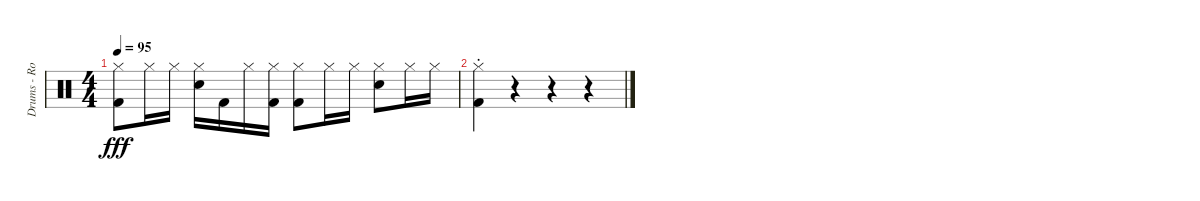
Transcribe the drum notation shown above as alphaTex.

\track ("Drums - Rob Bourdon" "Drums - Ro") {instrument percussion}
\staff {score}
\articulation defaults
\ts (4 4)
\tempo 95
\clef neutral
\ks c
("Hi-Hat (closed)" "Kick (hit) 2").8{dy fff} "Hi-Hat (closed)".16 "Hi-Hat (closed)".16 ("Hi-Hat (closed)" "Snare (hit) 2").16 "Kick (hit) 2".16 "Hi-Hat (closed)".16 ("Hi-Hat (closed)" "Kick (hit) 2").16 ("Hi-Hat (closed)" "Kick (hit) 2").8 "Hi-Hat (closed)".16 "Hi-Hat (closed)".16 ("Hi-Hat (closed)" "Snare (hit) 2").8 "Hi-Hat (closed)".16 "Hi-Hat (closed)".16 |
("Hi-Hat (closed)"{st} "Kick (hit) 2"{st}).4 r.4 r.4 r.4
